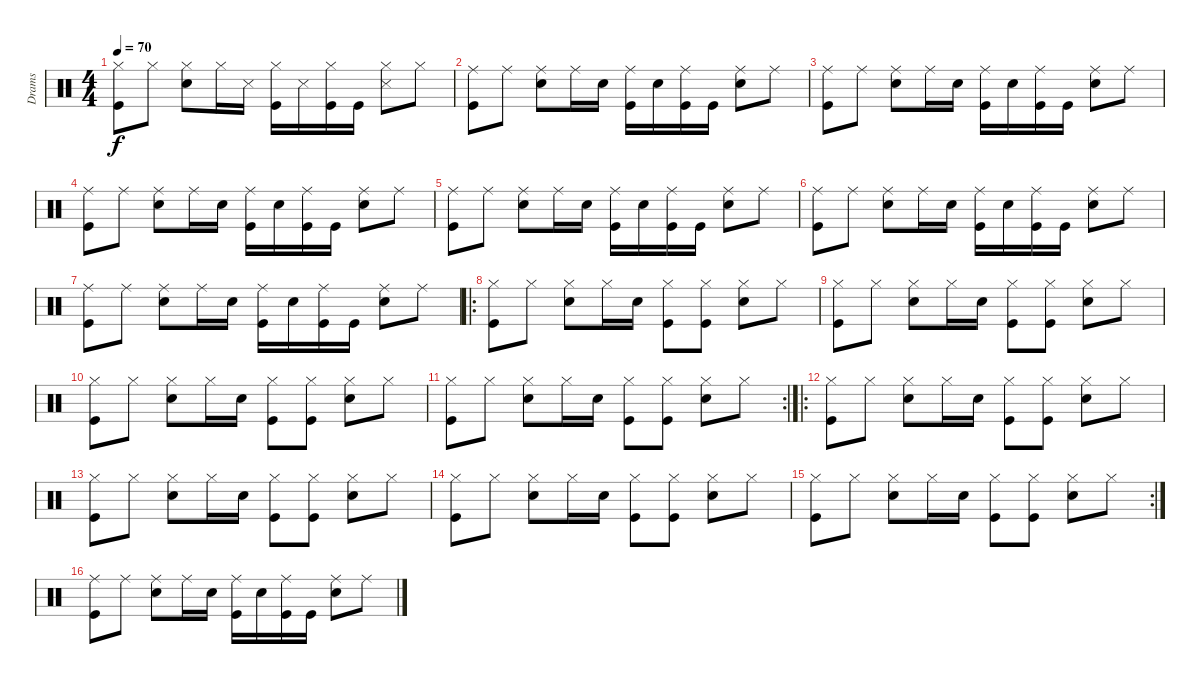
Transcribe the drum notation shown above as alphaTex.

\track ("Drams" "Drams") {instrument percussion}
\staff {score}
\articulation defaults
\ts (4 4)
\tempo 70
\clef neutral
\ks aminor
("Hi-Hat (closed)" "Kick (hit)").8{dy f} "Hi-Hat (closed)".8 ("Hi-Hat (closed)" "Electric Snare (hit)").8 "Hi-Hat (closed)".16 "Snare (side stick) 3".16 ("Kick (hit)" "Hi-Hat (closed)").16 "Snare (side stick) 3".16 ("Kick (hit)" "Hi-Hat (closed)").16 "Kick (hit)".16 ("Snare (side stick) 3" "Hi-Hat (closed)").8 "Hi-Hat (closed)".8 |
("Kick (hit)" "Ride (middle)").8 "Ride (middle)".8 ("Electric Snare (hit)" "Ride (middle)").8 "Ride (middle)".16 "Electric Snare (hit)".16 ("Kick (hit)" "Ride (middle)").16 "Electric Snare (hit)".16 ("Kick (hit)" "Ride (middle)").16 "Kick (hit)".16 ("Electric Snare (hit)" "Ride (middle)").8 "Ride (middle)".8 |
("Kick (hit)" "Ride (middle)").8 "Ride (middle)".8 ("Electric Snare (hit)" "Ride (middle)").8 "Ride (middle)".16 "Electric Snare (hit)".16 ("Kick (hit)" "Ride (middle)").16 "Electric Snare (hit)".16 ("Kick (hit)" "Ride (middle)").16 "Kick (hit)".16 ("Electric Snare (hit)" "Ride (middle)").8 "Ride (middle)".8 |
("Kick (hit)" "Ride (middle)").8 "Ride (middle)".8 ("Electric Snare (hit)" "Ride (middle)").8 "Ride (middle)".16 "Electric Snare (hit)".16 ("Kick (hit)" "Ride (middle)").16 "Electric Snare (hit)".16 ("Kick (hit)" "Ride (middle)").16 "Kick (hit)".16 ("Electric Snare (hit)" "Ride (middle)").8 "Ride (middle)".8 |
("Kick (hit)" "Ride (middle)").8 "Ride (middle)".8 ("Electric Snare (hit)" "Ride (middle)").8 "Ride (middle)".16 "Electric Snare (hit)".16 ("Kick (hit)" "Ride (middle)").16 "Electric Snare (hit)".16 ("Kick (hit)" "Ride (middle)").16 "Kick (hit)".16 ("Electric Snare (hit)" "Ride (middle)").8 "Ride (middle)".8 |
("Kick (hit)" "Ride (middle)").8 "Ride (middle)".8 ("Electric Snare (hit)" "Ride (middle)").8 "Ride (middle)".16 "Electric Snare (hit)".16 ("Kick (hit)" "Ride (middle)").16 "Electric Snare (hit)".16 ("Kick (hit)" "Ride (middle)").16 "Kick (hit)".16 ("Electric Snare (hit)" "Ride (middle)").8 "Ride (middle)".8 |
("Kick (hit)" "Ride (middle)").8 "Ride (middle)".8 ("Electric Snare (hit)" "Ride (middle)").8 "Ride (middle)".16 "Electric Snare (hit)".16 ("Kick (hit)" "Ride (middle)").16 "Electric Snare (hit)".16 ("Kick (hit)" "Ride (middle)").16 "Kick (hit)".16 ("Electric Snare (hit)" "Ride (middle)").8 "Ride (middle)".8 |
\ro
("Kick (hit)" "Hi-Hat (closed)").8 "Hi-Hat (closed)".8 ("Hi-Hat (closed)" "Electric Snare (hit)").8 "Hi-Hat (closed)".16 "Electric Snare (hit)".16 ("Kick (hit)" "Hi-Hat (closed)").8 ("Kick (hit)" "Hi-Hat (closed)").8 ("Electric Snare (hit)" "Hi-Hat (closed)").8 "Hi-Hat (closed)".8 |
("Kick (hit)" "Hi-Hat (closed)").8 "Hi-Hat (closed)".8 ("Hi-Hat (closed)" "Electric Snare (hit)").8 "Hi-Hat (closed)".16 "Electric Snare (hit)".16 ("Kick (hit)" "Hi-Hat (closed)").8 ("Kick (hit)" "Hi-Hat (closed)").8 ("Electric Snare (hit)" "Hi-Hat (closed)").8 "Hi-Hat (closed)".8 |
("Kick (hit)" "Hi-Hat (closed)").8 "Hi-Hat (closed)".8 ("Hi-Hat (closed)" "Electric Snare (hit)").8 "Hi-Hat (closed)".16 "Electric Snare (hit)".16 ("Kick (hit)" "Hi-Hat (closed)").8 ("Kick (hit)" "Hi-Hat (closed)").8 ("Electric Snare (hit)" "Hi-Hat (closed)").8 "Hi-Hat (closed)".8 |
\rc 2
("Kick (hit)" "Hi-Hat (closed)").8 "Hi-Hat (closed)".8 ("Hi-Hat (closed)" "Electric Snare (hit)").8 "Hi-Hat (closed)".16 "Electric Snare (hit)".16 ("Kick (hit)" "Hi-Hat (closed)").8 ("Kick (hit)" "Hi-Hat (closed)").8 ("Electric Snare (hit)" "Hi-Hat (closed)").8 "Hi-Hat (closed)".8 |
\ro
("Kick (hit)" "Hi-Hat (closed)").8 "Hi-Hat (closed)".8 ("Hi-Hat (closed)" "Electric Snare (hit)").8 "Hi-Hat (closed)".16 "Electric Snare (hit)".16 ("Kick (hit)" "Hi-Hat (closed)").8 ("Kick (hit)" "Hi-Hat (closed)").8 ("Electric Snare (hit)" "Hi-Hat (closed)").8 "Hi-Hat (closed)".8 |
("Kick (hit)" "Hi-Hat (closed)").8 "Hi-Hat (closed)".8 ("Hi-Hat (closed)" "Electric Snare (hit)").8 "Hi-Hat (closed)".16 "Electric Snare (hit)".16 ("Kick (hit)" "Hi-Hat (closed)").8 ("Kick (hit)" "Hi-Hat (closed)").8 ("Electric Snare (hit)" "Hi-Hat (closed)").8 "Hi-Hat (closed)".8 |
("Kick (hit)" "Hi-Hat (closed)").8 "Hi-Hat (closed)".8 ("Hi-Hat (closed)" "Electric Snare (hit)").8 "Hi-Hat (closed)".16 "Electric Snare (hit)".16 ("Kick (hit)" "Hi-Hat (closed)").8 ("Kick (hit)" "Hi-Hat (closed)").8 ("Electric Snare (hit)" "Hi-Hat (closed)").8 "Hi-Hat (closed)".8 |
\rc 2
("Kick (hit)" "Hi-Hat (closed)").8 "Hi-Hat (closed)".8 ("Hi-Hat (closed)" "Electric Snare (hit)").8 "Hi-Hat (closed)".16 "Electric Snare (hit)".16 ("Kick (hit)" "Hi-Hat (closed)").8 ("Kick (hit)" "Hi-Hat (closed)").8 ("Electric Snare (hit)" "Hi-Hat (closed)").8 "Hi-Hat (closed)".8 |
("Kick (hit)" "Ride (middle)").8 "Ride (middle)".8 ("Electric Snare (hit)" "Ride (middle)").8 "Ride (middle)".16 "Electric Snare (hit)".16 ("Kick (hit)" "Ride (middle)").16 "Electric Snare (hit)".16 ("Kick (hit)" "Ride (middle)").16 "Kick (hit)".16 ("Electric Snare (hit)" "Ride (middle)").8 "Ride (middle)".8
